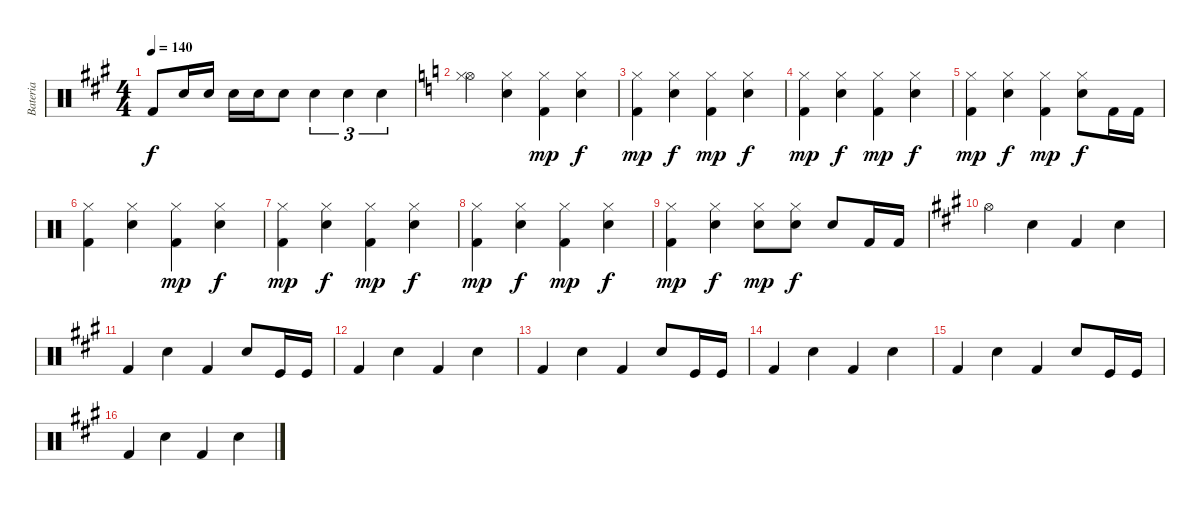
\track ("Bateria" "Bateria") {instrument percussion}
\staff {score}
\articulation defaults
\ts (4 4)
\tempo 140
\clef neutral
\ks a "Kick (hit) 2".8{dy f} "Electric Snare (hit)".16 "Electric Snare (hit)".16 "Electric Snare (hit)".16 "Electric Snare (hit)".16 "Electric Snare (hit)".8 "Electric Snare (hit)".4{tu (3 2)} "Electric Snare (hit)".4{tu (3 2)} "Electric Snare (hit)".4{tu (3 2)}
|
\ks c
("Hi-Hat (open)" "Hi-Hat (closed)").4 ("Electric Snare (hit)" "Hi-Hat (closed)").4 ("Kick (hit) 2" "Hi-Hat (closed)").4{dy mp} ("Electric Snare (hit)" "Hi-Hat (closed)").4{dy f} |
("Kick (hit) 2" "Hi-Hat (closed)").4{dy mp} ("Electric Snare (hit)" "Hi-Hat (closed)").4{dy f} ("Kick (hit) 2" "Hi-Hat (closed)").4{dy mp} ("Electric Snare (hit)" "Hi-Hat (closed)").4{dy f} |
("Kick (hit) 2" "Hi-Hat (closed)").4{dy mp} ("Electric Snare (hit)" "Hi-Hat (closed)").4{dy f} ("Kick (hit) 2" "Hi-Hat (closed)").4{dy mp} ("Electric Snare (hit)" "Hi-Hat (closed)").4{dy f} |
("Kick (hit) 2" "Hi-Hat (closed)").4{dy mp} ("Electric Snare (hit)" "Hi-Hat (closed)").4{dy f} ("Kick (hit) 2" "Hi-Hat (closed)").4{dy mp} ("Electric Snare (hit)" "Hi-Hat (closed)").8{dy f} "Kick (hit) 2".16 "Kick (hit) 2".16 |
("Kick (hit) 2" "Hi-Hat (closed)").4 ("Electric Snare (hit)" "Hi-Hat (closed)").4 ("Kick (hit) 2" "Hi-Hat (closed)").4{dy mp} ("Electric Snare (hit)" "Hi-Hat (closed)").4{dy f} |
("Kick (hit) 2" "Hi-Hat (closed)").4{dy mp} ("Electric Snare (hit)" "Hi-Hat (closed)").4{dy f} ("Kick (hit) 2" "Hi-Hat (closed)").4{dy mp} ("Electric Snare (hit)" "Hi-Hat (closed)").4{dy f} |
("Kick (hit) 2" "Hi-Hat (closed)").4{dy mp} ("Electric Snare (hit)" "Hi-Hat (closed)").4{dy f} ("Kick (hit) 2" "Hi-Hat (closed)").4{dy mp} ("Electric Snare (hit)" "Hi-Hat (closed)").4{dy f} |
("Kick (hit) 2" "Hi-Hat (closed)").4{dy mp} ("Electric Snare (hit)" "Hi-Hat (closed)").4{dy f} ("Electric Snare (hit)" "Hi-Hat (closed)").8{dy mp} ("Electric Snare (hit)" "Hi-Hat (closed)").8{dy f} "Electric Snare (hit)".8 "Kick (hit) 2".16 "Kick (hit) 2".16 |
\ks a "Hi-Hat (open)".4 "Electric Snare (hit)".4 "Kick (hit) 2".4 "Electric Snare (hit)".4
|
"Kick (hit) 2".4 "Electric Snare (hit)".4 "Kick (hit) 2".4 "Electric Snare (hit)".8 "Kick (hit)".16 "Kick (hit)".16 |
"Kick (hit) 2".4 "Electric Snare (hit)".4 "Kick (hit) 2".4 "Electric Snare (hit)".4 |
"Kick (hit) 2".4 "Electric Snare (hit)".4 "Kick (hit) 2".4 "Electric Snare (hit)".8 "Kick (hit)".16 "Kick (hit)".16 |
"Kick (hit) 2".4 "Electric Snare (hit)".4 "Kick (hit) 2".4 "Electric Snare (hit)".4 |
"Kick (hit) 2".4 "Electric Snare (hit)".4 "Kick (hit) 2".4 "Electric Snare (hit)".8 "Kick (hit)".16 "Kick (hit)".16 |
"Kick (hit) 2".4 "Electric Snare (hit)".4 "Kick (hit) 2".4 "Electric Snare (hit)".4
